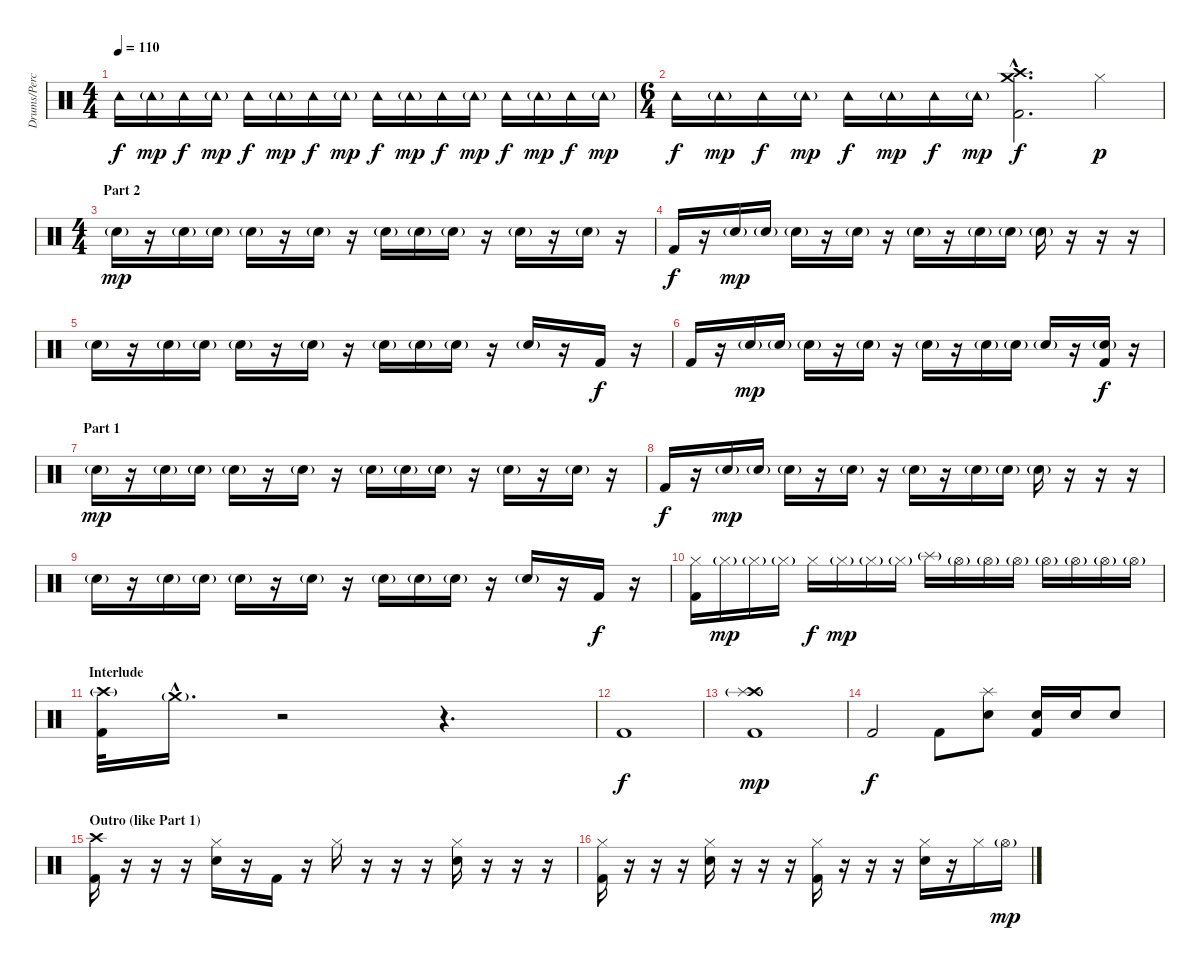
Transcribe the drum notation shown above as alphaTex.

\track ("Drums/Percussions" "Drums/Perc") {instrument percussion}
\staff {score}
\articulation defaults
\ts (4 4)
\tempo 110
\clef neutral
\ks c "Tambourine (hit)".16{dy f} "Tambourine (hit)"{g}.16{dy mp} "Tambourine (hit)".16{dy f} "Tambourine (hit)"{g}.16{dy mp} "Tambourine (hit)".16{dy f} "Tambourine (hit)"{g}.16{dy mp} "Tambourine (hit)".16{dy f} "Tambourine (hit)"{g}.16{dy mp} "Tambourine (hit)".16{dy f} "Tambourine (hit)"{g}.16{dy mp} "Tambourine (hit)".16{dy f} "Tambourine (hit)"{g}.16{dy mp} "Tambourine (hit)".16{dy f} "Tambourine (hit)"{g}.16{dy mp} "Tambourine (hit)".16{dy f} "Tambourine (hit)"{g}.16{dy mp}
|
\ts (6 4)
"Tambourine (hit)".16{dy f} "Tambourine (hit)"{g}.16{dy mp} "Tambourine (hit)".16{dy f} "Tambourine (hit)"{g}.16{dy mp} "Tambourine (hit)".16{dy f} "Tambourine (hit)"{g}.16{dy mp} "Tambourine (hit)".16{dy f} "Tambourine (hit)"{g}.16{dy mp} ("Crash high (hit)"{hac} "Crash medium (hit)"{hac} "Kick (hit) 2"{hac}).2{d dy f} "Hi-Hat (closed)".4{dy p} |
\ts (4 4)
\section ("" "Part 2")
"Snare (hit) 2"{g}.16{dy mp} r.16 "Snare (hit) 2"{g}.16 "Snare (hit) 2"{g}.16 "Snare (hit) 2"{g}.16 r.16 "Snare (hit) 2"{g}.16 r.16 "Snare (hit) 2"{g}.16 "Snare (hit) 2"{g}.16 "Snare (hit) 2"{g}.16 r.16 "Snare (hit) 2"{g}.16 r.16 "Snare (hit) 2"{g}.16 r.16 |
"Kick (hit) 2".16{dy f} r.16 "Snare (hit) 2"{g}.16{dy mp} "Snare (hit) 2"{g}.16 "Snare (hit) 2"{g}.16 r.16 "Snare (hit) 2"{g}.16 r.16 "Snare (hit) 2"{g}.16 r.16 "Snare (hit) 2"{g}.16 "Snare (hit) 2"{g}.16 "Snare (hit) 2"{g}.16 r.16 r.16 r.16 |
"Snare (hit) 2"{g}.16 r.16 "Snare (hit) 2"{g}.16 "Snare (hit) 2"{g}.16 "Snare (hit) 2"{g}.16 r.16 "Snare (hit) 2"{g}.16 r.16 "Snare (hit) 2"{g}.16 "Snare (hit) 2"{g}.16 "Snare (hit) 2"{g}.16 r.16 "Snare (hit) 2"{g}.16 r.16 "Kick (hit) 2".16{dy f} r.16 |
"Kick (hit) 2".16 r.16 "Snare (hit) 2"{g}.16{dy mp} "Snare (hit) 2"{g}.16 "Snare (hit) 2"{g}.16 r.16 "Snare (hit) 2"{g}.16 r.16 "Snare (hit) 2"{g}.16 r.16 "Snare (hit) 2"{g}.16 "Snare (hit) 2"{g}.16 "Snare (hit) 2"{g}.16 r.16 ("Snare (hit) 2"{g} "Kick (hit) 2").16{dy f} r.16 |
\section ("" "Part 1")
"Snare (hit) 2"{g}.16{dy mp} r.16 "Snare (hit) 2"{g}.16 "Snare (hit) 2"{g}.16 "Snare (hit) 2"{g}.16 r.16 "Snare (hit) 2"{g}.16 r.16 "Snare (hit) 2"{g}.16 "Snare (hit) 2"{g}.16 "Snare (hit) 2"{g}.16 r.16 "Snare (hit) 2"{g}.16 r.16 "Snare (hit) 2"{g}.16 r.16 |
"Kick (hit) 2".16{dy f} r.16 "Snare (hit) 2"{g}.16{dy mp} "Snare (hit) 2"{g}.16 "Snare (hit) 2"{g}.16 r.16 "Snare (hit) 2"{g}.16 r.16 "Snare (hit) 2"{g}.16 r.16 "Snare (hit) 2"{g}.16 "Snare (hit) 2"{g}.16 "Snare (hit) 2"{g}.16 r.16 r.16 r.16 |
"Snare (hit) 2"{g}.16 r.16 "Snare (hit) 2"{g}.16 "Snare (hit) 2"{g}.16 "Snare (hit) 2"{g}.16 r.16 "Snare (hit) 2"{g}.16 r.16 "Snare (hit) 2"{g}.16 "Snare (hit) 2"{g}.16 "Snare (hit) 2"{g}.16 r.16 "Snare (hit) 2"{g}.16 r.16 "Kick (hit) 2".16{dy f} r.16 |
("Hi-Hat (closed)" "Kick (hit) 2").16 "Hi-Hat (closed)"{g}.16{dy mp} "Hi-Hat (closed)"{g}.16 "Hi-Hat (closed)"{g}.16 "Hi-Hat (closed)".16{dy f} "Hi-Hat (closed)"{g}.16{dy mp} "Hi-Hat (closed)"{g}.16 "Hi-Hat (closed)"{g}.16 "Splash (hit)"{g}.16 "Hi-Hat (open)"{g}.16 "Hi-Hat (open)"{g}.16 "Hi-Hat (open)"{g}.16 "Hi-Hat (open)"{g}.16 "Hi-Hat (open)"{g}.16 "Hi-Hat (open)"{g}.16 "Hi-Hat (open)"{g}.16 |
\section ("" "Interlude")
("Crash high (hit)"{g} "Kick (hit) 2").32 "Crash medium (hit)"{g hac}.16{d} r.2 r.4{d} |
"Kick (hit) 2".1{dy f} |
("Crash high (hit)"{g} "Splash (hit)"{g} "Kick (hit) 2").1{dy mp} |
"Kick (hit) 2".2{dy f} "Kick (hit) 2".8 ("Splash (hit)" "Snare (hit) 2").8 ("Snare (hit) 2" "Kick (hit) 2").16 "Snare (hit) 2".16 "Snare (hit) 2".8 |
\section ("" "Outro (like Part 1)")
("Crash high (hit)" "Kick (hit) 2").16 r.16 r.16 r.16 ("Hi-Hat (closed)" "Snare (hit) 2").16 r.16 "Kick (hit) 2".16 r.16 "Hi-Hat (closed)".16 r.16 r.16 r.16 ("Hi-Hat (closed)" "Snare (hit) 2").16 r.16 r.16 r.16 |
("Hi-Hat (closed)" "Kick (hit) 2").16 r.16 r.16 r.16 ("Hi-Hat (closed)" "Snare (hit) 2").16 r.16 r.16 r.16 ("Hi-Hat (closed)" "Kick (hit) 2").16 r.16 r.16 r.16 ("Hi-Hat (closed)" "Snare (hit) 2").16 r.16 "Hi-Hat (closed)".16 "Hi-Hat (open)"{g}.16{dy mp}
